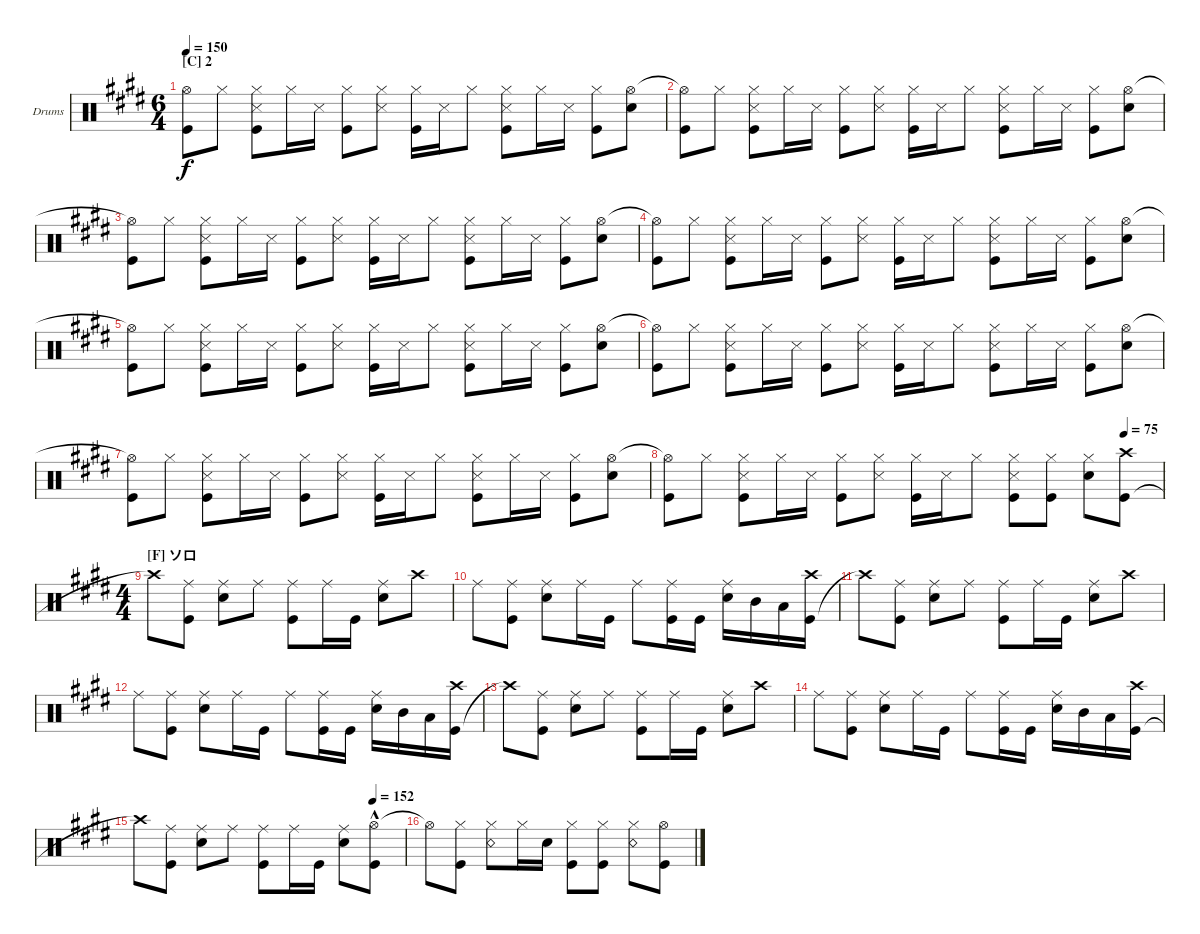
\bracketExtendMode groupsimilarinstruments
\firstSystemTrackNameOrientation horizontal
\otherSystemsTrackNameOrientation horizontal
\track ("Ichigo" "Drums") {instrument percussion}
\staff {score}
\articulation defaults
\ts (6 4)
\section ("C" "2")
\tempo 150
\clef neutral
\ks e
("Hi-Hat (open)"{t} "Kick (hit)").8{dy f} "Hi-Hat (closed)".8 ("Hi-Hat (closed)" "Kick (hit)" "Snare (side stick) 3").8 "Hi-Hat (closed)".16 "Snare (side stick) 3".16 ("Hi-Hat (closed)" "Kick (hit)").8 ("Hi-Hat (closed)" "Snare (side stick) 3").8 ("Hi-Hat (closed)" "Kick (hit)").16 "Snare (side stick) 3".16 "Hi-Hat (closed)".8 ("Hi-Hat (closed)" "Kick (hit)" "Snare (side stick) 3").8 "Hi-Hat (closed)".16 "Snare (side stick) 3".16 ("Hi-Hat (closed)" "Kick (hit)").8 ("Hi-Hat (open)" "Snare (hit) 2").8 |
("Hi-Hat (open)"{t} "Kick (hit)").8 "Hi-Hat (closed)".8 ("Hi-Hat (closed)" "Kick (hit)" "Snare (side stick) 3").8 "Hi-Hat (closed)".16 "Snare (side stick) 3".16 ("Hi-Hat (closed)" "Kick (hit)").8 ("Hi-Hat (closed)" "Snare (side stick) 3").8 ("Hi-Hat (closed)" "Kick (hit)").16 "Snare (side stick) 3".16 "Hi-Hat (closed)".8 ("Hi-Hat (closed)" "Kick (hit)" "Snare (side stick) 3").8 "Hi-Hat (closed)".16 "Snare (side stick) 3".16 ("Hi-Hat (closed)" "Kick (hit)").8 ("Hi-Hat (open)" "Snare (hit) 2").8 |
("Hi-Hat (open)"{t} "Kick (hit)").8 "Hi-Hat (closed)".8 ("Hi-Hat (closed)" "Kick (hit)" "Snare (side stick) 3").8 "Hi-Hat (closed)".16 "Snare (side stick) 3".16 ("Hi-Hat (closed)" "Kick (hit)").8 ("Hi-Hat (closed)" "Snare (side stick) 3").8 ("Hi-Hat (closed)" "Kick (hit)").16 "Snare (side stick) 3".16 "Hi-Hat (closed)".8 ("Hi-Hat (closed)" "Kick (hit)" "Snare (side stick) 3").8 "Hi-Hat (closed)".16 "Snare (side stick) 3".16 ("Hi-Hat (closed)" "Kick (hit)").8 ("Hi-Hat (open)" "Snare (hit) 2").8 |
("Hi-Hat (open)"{t} "Kick (hit)").8 "Hi-Hat (closed)".8 ("Hi-Hat (closed)" "Kick (hit)" "Snare (side stick) 3").8 "Hi-Hat (closed)".16 "Snare (side stick) 3".16 ("Hi-Hat (closed)" "Kick (hit)").8 ("Hi-Hat (closed)" "Snare (side stick) 3").8 ("Hi-Hat (closed)" "Kick (hit)").16 "Snare (side stick) 3".16 "Hi-Hat (closed)".8 ("Hi-Hat (closed)" "Kick (hit)" "Snare (side stick) 3").8 "Hi-Hat (closed)".16 "Snare (side stick) 3".16 ("Hi-Hat (closed)" "Kick (hit)").8 ("Hi-Hat (open)" "Snare (hit) 2").8 |
("Hi-Hat (open)"{t} "Kick (hit)").8 "Hi-Hat (closed)".8 ("Hi-Hat (closed)" "Kick (hit)" "Snare (side stick) 3").8 "Hi-Hat (closed)".16 "Snare (side stick) 3".16 ("Hi-Hat (closed)" "Kick (hit)").8 ("Hi-Hat (closed)" "Snare (side stick) 3").8 ("Hi-Hat (closed)" "Kick (hit)").16 "Snare (side stick) 3".16 "Hi-Hat (closed)".8 ("Hi-Hat (closed)" "Kick (hit)" "Snare (side stick) 3").8 "Hi-Hat (closed)".16 "Snare (side stick) 3".16 ("Hi-Hat (closed)" "Kick (hit)").8 ("Hi-Hat (open)" "Snare (hit) 2").8 |
("Hi-Hat (open)"{t} "Kick (hit)").8 "Hi-Hat (closed)".8 ("Hi-Hat (closed)" "Kick (hit)" "Snare (side stick) 3").8 "Hi-Hat (closed)".16 "Snare (side stick) 3".16 ("Hi-Hat (closed)" "Kick (hit)").8 ("Hi-Hat (closed)" "Snare (side stick) 3").8 ("Hi-Hat (closed)" "Kick (hit)").16 "Snare (side stick) 3".16 "Hi-Hat (closed)".8 ("Hi-Hat (closed)" "Kick (hit)" "Snare (side stick) 3").8 "Hi-Hat (closed)".16 "Snare (side stick) 3".16 ("Hi-Hat (closed)" "Kick (hit)").8 ("Hi-Hat (open)" "Snare (hit) 2").8 |
("Hi-Hat (open)"{t} "Kick (hit)").8 "Hi-Hat (closed)".8 ("Hi-Hat (closed)" "Kick (hit)" "Snare (side stick) 3").8 "Hi-Hat (closed)".16 "Snare (side stick) 3".16 ("Hi-Hat (closed)" "Kick (hit)").8 ("Hi-Hat (closed)" "Snare (side stick) 3").8 ("Hi-Hat (closed)" "Kick (hit)").16 "Snare (side stick) 3".16 "Hi-Hat (closed)".8 ("Hi-Hat (closed)" "Kick (hit)" "Snare (side stick) 3").8 "Hi-Hat (closed)".16 "Snare (side stick) 3".16 ("Hi-Hat (closed)" "Kick (hit)").8 ("Hi-Hat (open)" "Snare (hit) 2").8 |
\tempo (75 0.922374)
("Hi-Hat (open)"{t} "Kick (hit)").8 "Hi-Hat (closed)".8 ("Hi-Hat (closed)" "Kick (hit)" "Snare (side stick) 3").8 "Hi-Hat (closed)".16 "Snare (side stick) 3".16 ("Hi-Hat (closed)" "Kick (hit)").8 ("Hi-Hat (closed)" "Snare (side stick) 3").8 ("Hi-Hat (closed)" "Kick (hit)").16 "Snare (side stick) 3".16 "Hi-Hat (closed)".8 ("Hi-Hat (closed)" "Kick (hit)" "Snare (side stick) 3").8 ("Hi-Hat (closed)" "Kick (hit)").8 ("Hi-Hat (closed)" "Snare (hit) 2").8 ("Kick (hit)" "Crash high (hit)").8 |
\ts (4 4)
\section ("F" "ソロ")
"Crash high (hit)"{t}.8 ("Ride (middle)" "Kick (hit)").8 ("Ride (middle)" "Snare (hit) 2").8 "Ride (middle)".8 ("Ride (middle)" "Kick (hit)").8 "Ride (middle)".16 "Kick (hit)".16 ("Ride (middle)" "Snare (hit) 2").8 "Crash high (hit)".8 |
"Ride (middle)".8 ("Ride (middle)" "Kick (hit)").8 ("Ride (middle)" "Snare (hit) 2").8 "Ride (middle)".16 "Kick (hit)".16 "Ride (middle)".8 ("Ride (middle)" "Kick (hit)").16 "Kick (hit)".16 ("Ride (middle)" "Snare (hit) 2").16 "Mid Tom (hit)".16 "Low Tom (hit)".16 ("Kick (hit)" "Crash high (hit)").16 |
"Crash high (hit)"{t}.8 ("Ride (middle)" "Kick (hit)").8 ("Ride (middle)" "Snare (hit) 2").8 "Ride (middle)".8 ("Ride (middle)" "Kick (hit)").8 "Ride (middle)".16 "Kick (hit)".16 ("Ride (middle)" "Snare (hit) 2").8 "Crash high (hit)".8 |
"Ride (middle)".8 ("Ride (middle)" "Kick (hit)").8 ("Ride (middle)" "Snare (hit) 2").8 "Ride (middle)".16 "Kick (hit)".16 "Ride (middle)".8 ("Ride (middle)" "Kick (hit)").16 "Kick (hit)".16 ("Ride (middle)" "Snare (hit) 2").16 "Mid Tom (hit)".16 "Low Tom (hit)".16 ("Kick (hit)" "Crash high (hit)").16 |
"Crash high (hit)"{t}.8 ("Ride (middle)" "Kick (hit)").8 ("Ride (middle)" "Snare (hit) 2").8 "Ride (middle)".8 ("Ride (middle)" "Kick (hit)").8 "Ride (middle)".16 "Kick (hit)".16 ("Ride (middle)" "Snare (hit) 2").8 "Crash high (hit)".8 |
"Ride (middle)".8 ("Ride (middle)" "Kick (hit)").8 ("Ride (middle)" "Snare (hit) 2").8 "Ride (middle)".16 "Kick (hit)".16 "Ride (middle)".8 ("Ride (middle)" "Kick (hit)").16 "Kick (hit)".16 ("Ride (middle)" "Snare (hit) 2").16 "Mid Tom (hit)".16 "Low Tom (hit)".16 ("Kick (hit)" "Crash high (hit)").16 |
\tempo (152 0.88125)
"Crash high (hit)"{t}.8 ("Ride (middle)" "Kick (hit)").8 ("Ride (middle)" "Snare (hit) 2").8 "Ride (middle)".8 ("Ride (middle)" "Kick (hit)").8 "Ride (middle)".16 "Kick (hit)".16 ("Ride (middle)" "Snare (hit) 2").8 ("Hi-Hat (open)"{hac} "Kick (hit)").8 |
"Hi-Hat (open)"{t}.8 ("Hi-Hat (closed)" "Kick (hit)").8 ("Hi-Hat (closed)" "Snare (rim shot)").8 "Hi-Hat (closed)".16 "Snare (hit) 2".16 ("Hi-Hat (closed)" "Kick (hit)").8 ("Hi-Hat (closed)" "Kick (hit)").8 ("Hi-Hat (closed)" "Snare (rim shot)").8 ("Hi-Hat (open)" "Kick (hit)").8
